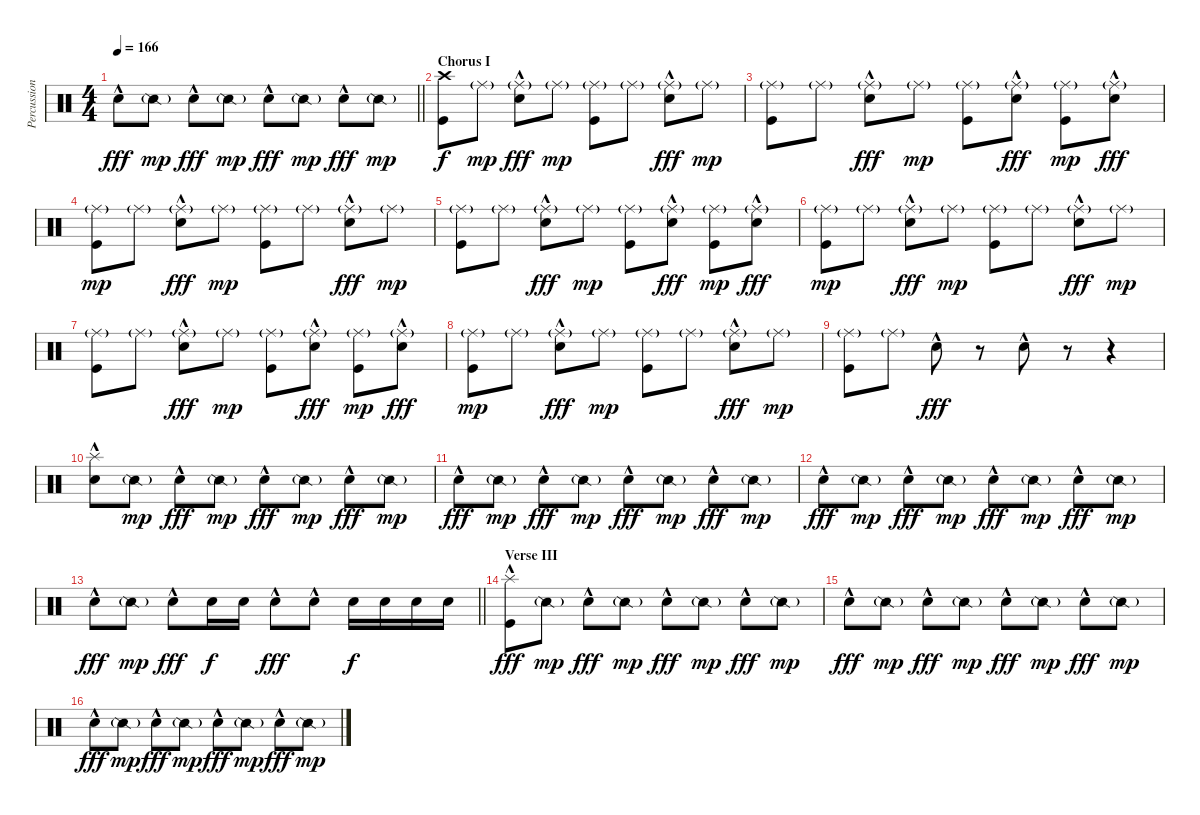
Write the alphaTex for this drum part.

\track ("Percussion" "Percussion") {instrument percussion}
\staff {score}
\articulation defaults
\ts (4 4)
\tempo 166
\clef neutral
\barLineRight lightlight
\ks c "Snare (hit) 2"{hac}.8{dy fff} "Snare (side stick) 2"{g}.8{dy mp} "Snare (hit) 2"{hac}.8{dy fff} "Snare (side stick) 2"{g}.8{dy mp} "Snare (hit) 2"{hac}.8{dy fff} "Snare (side stick) 2"{g}.8{dy mp} "Snare (hit) 2"{hac}.8{dy fff} "Snare (side stick) 2"{g}.8{dy mp}
|
\section ("" "Chorus I")
("Crash high (hit)" "Kick (hit)").8{dy f} "Ride (middle)"{g}.8{dy mp} ("Ride (middle)"{g} "Snare (hit) 2"{hac}).8{dy fff} "Ride (middle)"{g}.8{dy mp} ("Ride (middle)"{g} "Kick (hit)").8 "Ride (middle)"{g}.8 ("Ride (middle)"{g} "Snare (hit) 2"{hac}).8{dy fff} "Ride (middle)"{g}.8{dy mp} |
("Ride (middle)"{g} "Kick (hit)").8 "Ride (middle)"{g}.8 ("Ride (middle)"{g} "Snare (hit) 2"{hac}).8{dy fff} "Ride (middle)"{g}.8{dy mp} ("Ride (middle)"{g} "Kick (hit)").8 ("Ride (middle)"{g} "Snare (hit) 2"{hac}).8{dy fff} ("Ride (middle)"{g} "Kick (hit)").8{dy mp} ("Ride (middle)"{g} "Snare (hit) 2"{hac}).8{dy fff} |
("Ride (middle)"{g} "Kick (hit)").8{dy mp} "Ride (middle)"{g}.8 ("Ride (middle)"{g} "Snare (hit) 2"{hac}).8{dy fff} "Ride (middle)"{g}.8{dy mp} ("Ride (middle)"{g} "Kick (hit)").8 "Ride (middle)"{g}.8 ("Ride (middle)"{g} "Snare (hit) 2"{hac}).8{dy fff} "Ride (middle)"{g}.8{dy mp} |
("Ride (middle)"{g} "Kick (hit)").8 "Ride (middle)"{g}.8 ("Ride (middle)"{g} "Snare (hit) 2"{hac}).8{dy fff} "Ride (middle)"{g}.8{dy mp} ("Ride (middle)"{g} "Kick (hit)").8 ("Ride (middle)"{g} "Snare (hit) 2"{hac}).8{dy fff} ("Ride (middle)"{g} "Kick (hit)").8{dy mp} ("Ride (middle)"{g} "Snare (hit) 2"{hac}).8{dy fff} |
("Ride (middle)"{g} "Kick (hit)").8{dy mp} "Ride (middle)"{g}.8 ("Ride (middle)"{g} "Snare (hit) 2"{hac}).8{dy fff} "Ride (middle)"{g}.8{dy mp} ("Ride (middle)"{g} "Kick (hit)").8 "Ride (middle)"{g}.8 ("Ride (middle)"{g} "Snare (hit) 2"{hac}).8{dy fff} "Ride (middle)"{g}.8{dy mp} |
("Ride (middle)"{g} "Kick (hit)").8 "Ride (middle)"{g}.8 ("Ride (middle)"{g} "Snare (hit) 2"{hac}).8{dy fff} "Ride (middle)"{g}.8{dy mp} ("Ride (middle)"{g} "Kick (hit)").8 ("Ride (middle)"{g} "Snare (hit) 2"{hac}).8{dy fff} ("Ride (middle)"{g} "Kick (hit)").8{dy mp} ("Ride (middle)"{g} "Snare (hit) 2"{hac}).8{dy fff} |
("Ride (middle)"{g} "Kick (hit)").8{dy mp} "Ride (middle)"{g}.8 ("Ride (middle)"{g} "Snare (hit) 2"{hac}).8{dy fff} "Ride (middle)"{g}.8{dy mp} ("Ride (middle)"{g} "Kick (hit)").8 "Ride (middle)"{g}.8 ("Ride (middle)"{g} "Snare (hit) 2"{hac}).8{dy fff} "Ride (middle)"{g}.8{dy mp} |
("Ride (middle)"{g} "Kick (hit)").8 "Ride (middle)"{g}.8 "Snare (hit) 2"{hac}.8{dy fff} r.8 "Snare (hit) 2"{hac}.8 r.8 r.4 |
("Splash (hit)" "Snare (hit) 2"{hac}).8 "Snare (side stick) 2"{g}.8{dy mp} "Snare (hit) 2"{hac}.8{dy fff} "Snare (side stick) 2"{g}.8{dy mp} "Snare (hit) 2"{hac}.8{dy fff} "Snare (side stick) 2"{g}.8{dy mp} "Snare (hit) 2"{hac}.8{dy fff} "Snare (side stick) 2"{g}.8{dy mp} |
"Snare (hit) 2"{hac}.8{dy fff} "Snare (side stick) 2"{g}.8{dy mp} "Snare (hit) 2"{hac}.8{dy fff} "Snare (side stick) 2"{g}.8{dy mp} "Snare (hit) 2"{hac}.8{dy fff} "Snare (side stick) 2"{g}.8{dy mp} "Snare (hit) 2"{hac}.8{dy fff} "Snare (side stick) 2"{g}.8{dy mp} |
"Snare (hit) 2"{hac}.8{dy fff} "Snare (side stick) 2"{g}.8{dy mp} "Snare (hit) 2"{hac}.8{dy fff} "Snare (side stick) 2"{g}.8{dy mp} "Snare (hit) 2"{hac}.8{dy fff} "Snare (side stick) 2"{g}.8{dy mp} "Snare (hit) 2"{hac}.8{dy fff} "Snare (side stick) 2"{g}.8{dy mp} |
\barLineRight lightlight "Snare (hit) 2"{hac}.8{dy fff} "Snare (side stick) 2"{g}.8{dy mp} "Snare (hit) 2"{hac}.8{dy fff} "Snare (hit) 2".16{dy f} "Snare (hit) 2".16 "Snare (hit) 2"{hac}.8{dy fff} "Snare (hit) 2"{hac}.8 "Snare (hit) 2".16{dy f} "Snare (hit) 2".16 "Snare (hit) 2".16 "Snare (hit) 2".16
|
\section ("" "Verse III")
("Splash (hit)" "Kick (hit)"{hac}).8{dy fff} "Snare (side stick) 2"{g}.8{dy mp} "Snare (hit) 2"{hac}.8{dy fff} "Snare (side stick) 2"{g}.8{dy mp} "Snare (hit) 2"{hac}.8{dy fff} "Snare (side stick) 2"{g}.8{dy mp} "Snare (hit) 2"{hac}.8{dy fff} "Snare (side stick) 2"{g}.8{dy mp} |
"Snare (hit) 2"{hac}.8{dy fff} "Snare (side stick) 2"{g}.8{dy mp} "Snare (hit) 2"{hac}.8{dy fff} "Snare (side stick) 2"{g}.8{dy mp} "Snare (hit) 2"{hac}.8{dy fff} "Snare (side stick) 2"{g}.8{dy mp} "Snare (hit) 2"{hac}.8{dy fff} "Snare (side stick) 2"{g}.8{dy mp} |
"Snare (hit) 2"{hac}.8{dy fff} "Snare (side stick) 2"{g}.8{dy mp} "Snare (hit) 2"{hac}.8{dy fff} "Snare (side stick) 2"{g}.8{dy mp} "Snare (hit) 2"{hac}.8{dy fff} "Snare (side stick) 2"{g}.8{dy mp} "Snare (hit) 2"{hac}.8{dy fff} "Snare (side stick) 2"{g}.8{dy mp}
